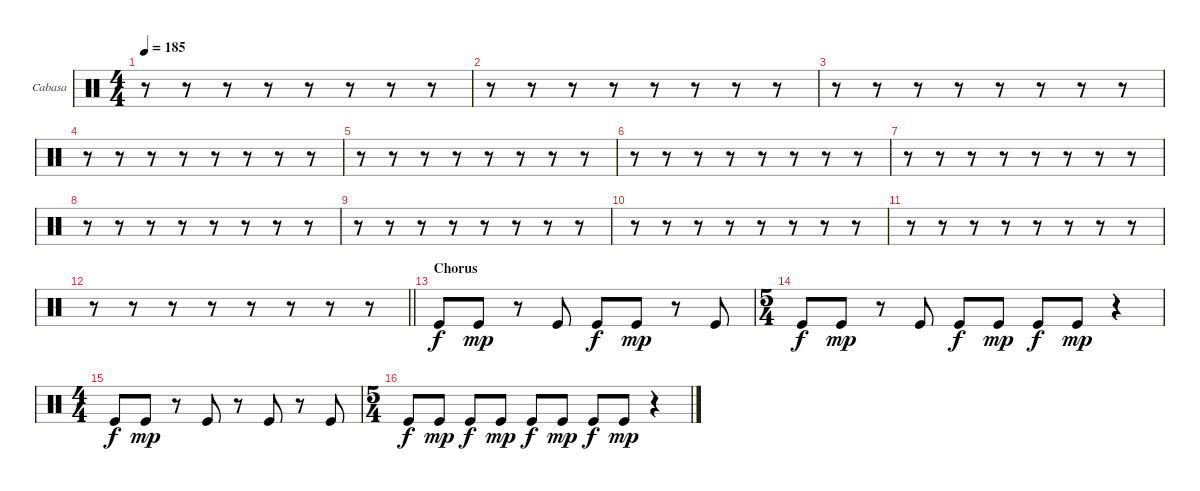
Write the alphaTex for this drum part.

\bracketExtendMode groupsimilarinstruments
\firstSystemTrackNameOrientation horizontal
\otherSystemsTrackNameOrientation horizontal
\track ("Cabasa" "Cabasa") {instrument percussion}
\staff {score}
\articulation defaults
\ts (4 4)
\tempo 185
\clef neutral
\ks c
r.8{dy mp} r.8 r.8 r.8 r.8 r.8 r.8 r.8 |
r.8 r.8 r.8 r.8 r.8 r.8 r.8 r.8 |
r.8 r.8 r.8 r.8 r.8 r.8 r.8 r.8 |
r.8 r.8 r.8 r.8 r.8 r.8 r.8 r.8 |
r.8 r.8 r.8 r.8 r.8 r.8 r.8 r.8 |
r.8 r.8 r.8 r.8 r.8 r.8 r.8 r.8 |
r.8 r.8 r.8 r.8 r.8 r.8 r.8 r.8 |
r.8 r.8 r.8 r.8 r.8 r.8 r.8 r.8 |
r.8 r.8 r.8 r.8 r.8 r.8 r.8 r.8 |
r.8 r.8 r.8 r.8 r.8 r.8 r.8 r.8 |
r.8 r.8 r.8 r.8 r.8 r.8 r.8 r.8 |
\barLineRight lightlight
r.8 r.8 r.8 r.8 r.8 r.8 r.8 r.8 |
\section ("" "Chorus")
"Kick (hit)".8{dy f} "Kick (hit)".8{dy mp} r.8 "Kick (hit)".8 "Kick (hit)".8{dy f} "Kick (hit)".8{dy mp} r.8 "Kick (hit)".8 |
\ts (5 4)
\beaming (8 2 2 2 4)
"Kick (hit)".8{dy f} "Kick (hit)".8{dy mp} r.8 "Kick (hit)".8 "Kick (hit)".8{dy f} "Kick (hit)".8{dy mp} "Kick (hit)".8{dy f} "Kick (hit)".8{dy mp} r.4 |
\ts (4 4)
\beaming (8 2 2 2 2)
"Kick (hit)".8{dy f} "Kick (hit)".8{dy mp} r.8 "Kick (hit)".8 r.8 "Kick (hit)".8 r.8 "Kick (hit)".8 |
\ts (5 4)
\beaming (8 2 2 2 4)
"Kick (hit)".8{dy f} "Kick (hit)".8{dy mp} "Kick (hit)".8{dy f} "Kick (hit)".8{dy mp} "Kick (hit)".8{dy f} "Kick (hit)".8{dy mp} "Kick (hit)".8{dy f} "Kick (hit)".8{dy mp} r.4
